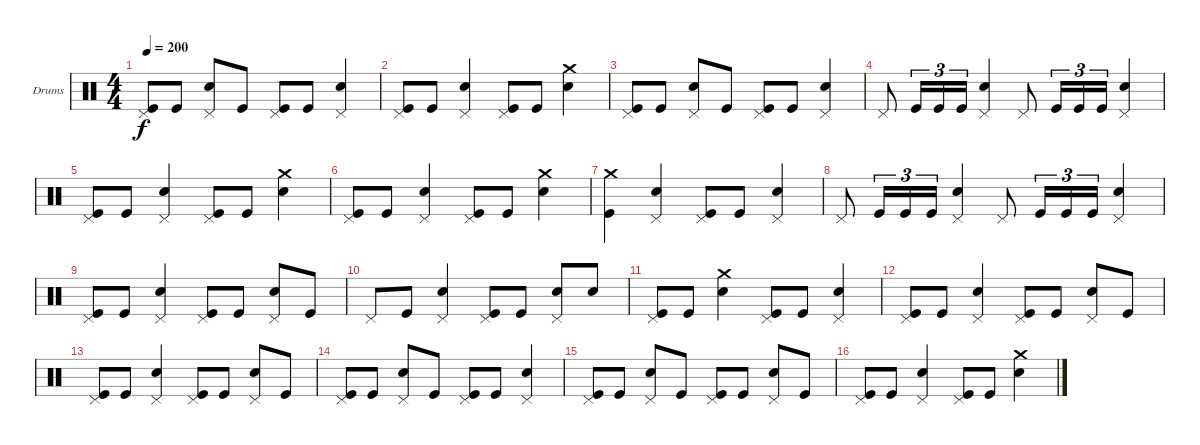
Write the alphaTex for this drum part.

\bracketExtendMode groupsimilarinstruments
\firstSystemTrackNameOrientation horizontal
\otherSystemsTrackNameOrientation horizontal
\track ("Drumkit" "Drums") {instrument percussion}
\staff {score}
\articulation defaults
\ts (4 4)
\tempo 200
\clef neutral
\ks c
("Pedal Hi-Hat (hit)" "Kick (hit)").8{dy f} "Kick (hit)".8 ("Pedal Hi-Hat (hit)" "Snare (hit) 2").8 "Kick (hit)".8 ("Pedal Hi-Hat (hit)" "Kick (hit)").8 "Kick (hit)".8 ("Pedal Hi-Hat (hit)" "Snare (hit) 2").4 |
("Pedal Hi-Hat (hit)" "Kick (hit)").8 "Kick (hit)".8 ("Pedal Hi-Hat (hit)" "Snare (hit) 2").4 ("Pedal Hi-Hat (hit)" "Kick (hit)").8 "Kick (hit)".8 ("Crash medium (hit)" "Snare (hit) 2").4 |
("Pedal Hi-Hat (hit)" "Kick (hit)").8 "Kick (hit)".8 ("Pedal Hi-Hat (hit)" "Snare (hit) 2").8 "Kick (hit)".8 ("Pedal Hi-Hat (hit)" "Kick (hit)").8 "Kick (hit)".8 ("Pedal Hi-Hat (hit)" "Snare (hit) 2").4 |
"Pedal Hi-Hat (hit)".8 "Kick (hit)".16{tu (3 2)} "Kick (hit)".16{tu (3 2)} "Kick (hit)".16{tu (3 2)} ("Pedal Hi-Hat (hit)" "Snare (hit) 2").4 "Pedal Hi-Hat (hit)".8 "Kick (hit)".16{tu (3 2)} "Kick (hit)".16{tu (3 2)} "Kick (hit)".16{tu (3 2)} ("Pedal Hi-Hat (hit)" "Snare (hit) 2").4 |
("Pedal Hi-Hat (hit)" "Kick (hit)").8 "Kick (hit)".8 ("Pedal Hi-Hat (hit)" "Snare (hit) 2").4 ("Pedal Hi-Hat (hit)" "Kick (hit)").8 "Kick (hit)".8 ("Crash medium (hit)" "Snare (hit) 2").4 |
("Pedal Hi-Hat (hit)" "Kick (hit)").8 "Kick (hit)".8 ("Pedal Hi-Hat (hit)" "Snare (hit) 2").4 ("Pedal Hi-Hat (hit)" "Kick (hit)").8 "Kick (hit)".8 ("Crash medium (hit)" "Snare (hit) 2").4 |
("Crash medium (hit)" "Kick (hit)").4 ("Pedal Hi-Hat (hit)" "Snare (hit) 2").4 ("Pedal Hi-Hat (hit)" "Kick (hit)").8 "Kick (hit)".8 ("Pedal Hi-Hat (hit)" "Snare (hit) 2").4 |
"Pedal Hi-Hat (hit)".8 "Kick (hit)".16{tu (3 2)} "Kick (hit)".16{tu (3 2)} "Kick (hit)".16{tu (3 2)} ("Pedal Hi-Hat (hit)" "Snare (hit) 2").4 "Pedal Hi-Hat (hit)".8 "Kick (hit)".16{tu (3 2)} "Kick (hit)".16{tu (3 2)} "Kick (hit)".16{tu (3 2)} ("Pedal Hi-Hat (hit)" "Snare (hit) 2").4 |
("Pedal Hi-Hat (hit)" "Kick (hit)").8 "Kick (hit)".8 ("Pedal Hi-Hat (hit)" "Snare (hit) 2").4 ("Pedal Hi-Hat (hit)" "Kick (hit)").8 "Kick (hit)".8 ("Pedal Hi-Hat (hit)" "Snare (hit) 2").8 "Kick (hit)".8 |
"Pedal Hi-Hat (hit)".8 "Kick (hit)".8 ("Pedal Hi-Hat (hit)" "Snare (hit) 2").4 ("Pedal Hi-Hat (hit)" "Kick (hit)").8 "Kick (hit)".8 ("Pedal Hi-Hat (hit)" "Snare (hit) 2").8 "Snare (hit) 2".8 |
("Pedal Hi-Hat (hit)" "Kick (hit)").8 "Kick (hit)".8 ("Crash medium (hit)" "Snare (hit) 2").4 ("Pedal Hi-Hat (hit)" "Kick (hit)").8 "Kick (hit)".8 ("Pedal Hi-Hat (hit)" "Snare (hit) 2").4 |
("Pedal Hi-Hat (hit)" "Kick (hit)").8 "Kick (hit)".8 ("Pedal Hi-Hat (hit)" "Snare (hit) 2").4 ("Pedal Hi-Hat (hit)" "Kick (hit)").8 "Kick (hit)".8 ("Pedal Hi-Hat (hit)" "Snare (hit) 2").8 "Kick (hit)".8 |
("Pedal Hi-Hat (hit)" "Kick (hit)").8 "Kick (hit)".8 ("Pedal Hi-Hat (hit)" "Snare (hit) 2").4 ("Pedal Hi-Hat (hit)" "Kick (hit)").8 "Kick (hit)".8 ("Pedal Hi-Hat (hit)" "Snare (hit) 2").8 "Kick (hit)".8 |
("Pedal Hi-Hat (hit)" "Kick (hit)").8 "Kick (hit)".8 ("Pedal Hi-Hat (hit)" "Snare (hit) 2").8 "Kick (hit)".8 ("Pedal Hi-Hat (hit)" "Kick (hit)").8 "Kick (hit)".8 ("Pedal Hi-Hat (hit)" "Snare (hit) 2").4 |
("Pedal Hi-Hat (hit)" "Kick (hit)").8 "Kick (hit)".8 ("Pedal Hi-Hat (hit)" "Snare (hit) 2").8 "Kick (hit)".8 ("Pedal Hi-Hat (hit)" "Kick (hit)").8 "Kick (hit)".8 ("Pedal Hi-Hat (hit)" "Snare (hit) 2").8 "Kick (hit)".8 |
("Pedal Hi-Hat (hit)" "Kick (hit)").8 "Kick (hit)".8 ("Pedal Hi-Hat (hit)" "Snare (hit) 2").4 ("Pedal Hi-Hat (hit)" "Kick (hit)").8 "Kick (hit)".8 ("Crash medium (hit)" "Snare (hit) 2").4
